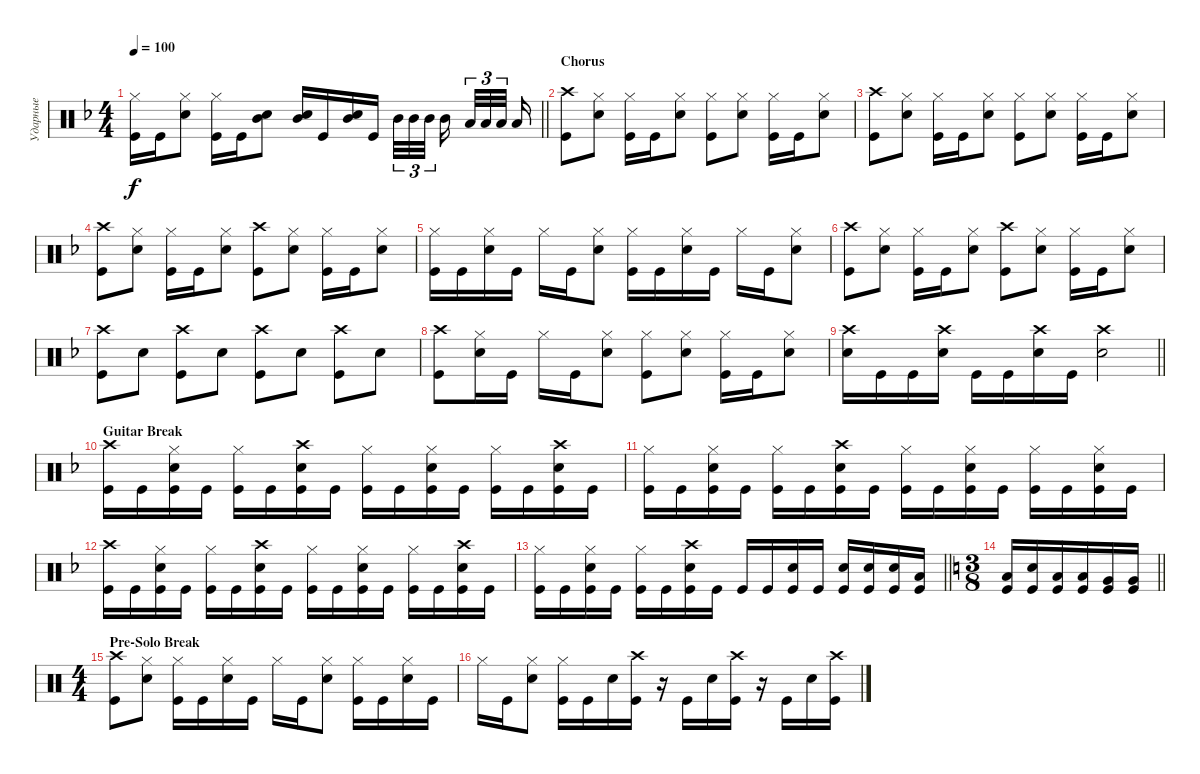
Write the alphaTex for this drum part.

\track ("Ударные" "Ударные") {instrument percussion}
\staff {score}
\articulation defaults
\ts (4 4)
\tempo 100
\clef neutral
\barLineRight lightlight
\ks dminor
("Kick (hit)" "Hi-Hat (closed)").16{dy f} "Kick (hit)".16 ("Snare (hit) 2" "Hi-Hat (closed)").8 ("Kick (hit)" "Hi-Hat (closed)").16 "Kick (hit)".16 ("Snare (hit) 2" "Mid Tom (hit)").8{bd 240} ("Snare (hit) 2" "Mid Tom (hit)").16{bd 240} "Kick (hit)".16 ("Snare (hit) 2" "Mid Tom (hit)").16{bd 240} "Kick (hit)".16 "Mid Tom (hit)".32{tu (3 2)} "Mid Tom (hit)".32{tu (3 2)} "Mid Tom (hit)".32{tu (3 2) beam splitsecondary} "Mid Tom (hit)".16{beam splitsecondary} "Low Tom (hit)".32{tu (3 2)} "Low Tom (hit)".32{tu (3 2)} "Low Tom (hit)".32{tu (3 2) beam splitsecondary} "Low Tom (hit)".16 |
\section ("" "Chorus")
("Kick (hit)" "Crash high (hit)").8 ("Snare (hit) 2" "Hi-Hat (closed)").8 ("Kick (hit)" "Hi-Hat (closed)").16 "Kick (hit)".16 ("Snare (hit) 2" "Hi-Hat (closed)").8 ("Kick (hit)" "Hi-Hat (closed)").8 ("Snare (hit) 2" "Hi-Hat (closed)").8 ("Kick (hit)" "Hi-Hat (closed)").16 "Kick (hit)".16 ("Snare (hit) 2" "Hi-Hat (closed)").8 |
("Kick (hit)" "Crash high (hit)").8 ("Snare (hit) 2" "Hi-Hat (closed)").8 ("Kick (hit)" "Hi-Hat (closed)").16 "Kick (hit)".16 ("Snare (hit) 2" "Hi-Hat (closed)").8 ("Kick (hit)" "Hi-Hat (closed)").8 ("Snare (hit) 2" "Hi-Hat (closed)").8 ("Kick (hit)" "Hi-Hat (closed)").16 "Kick (hit)".16 ("Snare (hit) 2" "Hi-Hat (closed)").8 |
("Kick (hit)" "Crash high (hit)").8 ("Snare (hit) 2" "Hi-Hat (closed)").8 ("Kick (hit)" "Hi-Hat (closed)").16 "Kick (hit)".16 ("Snare (hit) 2" "Hi-Hat (closed)").8 ("Kick (hit)" "Crash high (hit)").8 ("Snare (hit) 2" "Hi-Hat (closed)").8 ("Kick (hit)" "Hi-Hat (closed)").16 "Kick (hit)".16 ("Snare (hit) 2" "Hi-Hat (closed)").8 |
("Kick (hit)" "Hi-Hat (closed)").16 "Kick (hit)".16 ("Snare (hit) 2" "Hi-Hat (closed)").16 "Kick (hit)".16 "Hi-Hat (closed)".16 "Kick (hit)".16 ("Snare (hit) 2" "Hi-Hat (closed)").8 ("Kick (hit)" "Hi-Hat (closed)").16 "Kick (hit)".16 ("Snare (hit) 2" "Hi-Hat (closed)").16 "Kick (hit)".16 "Hi-Hat (closed)".16 "Kick (hit)".16 ("Snare (hit) 2" "Hi-Hat (closed)").8 |
("Kick (hit)" "Crash high (hit)").8 ("Snare (hit) 2" "Hi-Hat (closed)").8 ("Kick (hit)" "Hi-Hat (closed)").16 "Kick (hit)".16 ("Snare (hit) 2" "Hi-Hat (closed)").8 ("Kick (hit)" "Crash high (hit)").8 ("Snare (hit) 2" "Hi-Hat (closed)").8 ("Kick (hit)" "Hi-Hat (closed)").16 "Kick (hit)".16 ("Snare (hit) 2" "Hi-Hat (closed)").8 |
("Kick (hit)" "Crash high (hit)").8 "Snare (hit) 2".8 ("Kick (hit)" "Crash high (hit)").8 "Snare (hit) 2".8 ("Kick (hit)" "Crash high (hit)").8 "Snare (hit) 2".8 ("Kick (hit)" "Crash high (hit)").8 "Snare (hit) 2".8 |
("Kick (hit)" "Crash high (hit)").8 ("Snare (hit) 2" "Hi-Hat (closed)").16 "Kick (hit)".16 "Hi-Hat (closed)".16 "Kick (hit)".16 ("Snare (hit) 2" "Hi-Hat (closed)").8 ("Kick (hit)" "Hi-Hat (closed)").8 ("Snare (hit) 2" "Hi-Hat (closed)").8 ("Kick (hit)" "Hi-Hat (closed)").16 "Kick (hit)".16 ("Snare (hit) 2" "Hi-Hat (closed)").8 |
\barLineRight lightlight
("Snare (hit) 2" "Crash high (hit)").16 "Kick (hit)".16 "Kick (hit)".16 ("Snare (hit) 2" "Crash high (hit)").16 "Kick (hit)".16 "Kick (hit)".16 ("Snare (hit) 2" "Crash high (hit)").16 "Kick (hit)".16 ("Snare (hit) 2" "Crash high (hit)").2 |
\section ("" "Guitar Break")
("Kick (hit)" "Crash high (hit)").16 "Kick (hit)".16 ("Kick (hit)" "Snare (hit) 2" "Hi-Hat (closed)").16 "Kick (hit)".16 ("Kick (hit)" "Hi-Hat (closed)").16 "Kick (hit)".16 ("Kick (hit)" "Snare (hit) 2" "Crash high (hit)").16 "Kick (hit)".16 ("Kick (hit)" "Hi-Hat (closed)").16 "Kick (hit)".16 ("Kick (hit)" "Snare (hit) 2" "Hi-Hat (closed)").16 "Kick (hit)".16 ("Kick (hit)" "Hi-Hat (closed)").16 "Kick (hit)".16 ("Kick (hit)" "Snare (hit) 2" "Crash high (hit)").16 "Kick (hit)".16 |
("Kick (hit)" "Hi-Hat (closed)").16 "Kick (hit)".16 ("Kick (hit)" "Snare (hit) 2" "Hi-Hat (closed)").16 "Kick (hit)".16 ("Kick (hit)" "Hi-Hat (closed)").16 "Kick (hit)".16 ("Kick (hit)" "Snare (hit) 2" "Crash high (hit)").16 "Kick (hit)".16 ("Kick (hit)" "Hi-Hat (closed)").16 "Kick (hit)".16 ("Kick (hit)" "Snare (hit) 2" "Hi-Hat (closed)").16 "Kick (hit)".16 ("Kick (hit)" "Hi-Hat (closed)").16 "Kick (hit)".16 ("Kick (hit)" "Snare (hit) 2" "Hi-Hat (closed)").16 "Kick (hit)".16 |
("Kick (hit)" "Crash high (hit)").16 "Kick (hit)".16 ("Kick (hit)" "Snare (hit) 2" "Hi-Hat (closed)").16 "Kick (hit)".16 ("Kick (hit)" "Hi-Hat (closed)").16 "Kick (hit)".16 ("Kick (hit)" "Snare (hit) 2" "Crash high (hit)").16 "Kick (hit)".16 ("Kick (hit)" "Hi-Hat (closed)").16 "Kick (hit)".16 ("Kick (hit)" "Snare (hit) 2" "Hi-Hat (closed)").16 "Kick (hit)".16 ("Kick (hit)" "Hi-Hat (closed)").16 "Kick (hit)".16 ("Kick (hit)" "Snare (hit) 2" "Crash high (hit)").16 "Kick (hit)".16 |
\barLineRight lightlight
("Kick (hit)" "Hi-Hat (closed)").16 "Kick (hit)".16 ("Kick (hit)" "Snare (hit) 2" "Hi-Hat (closed)").16 "Kick (hit)".16 ("Kick (hit)" "Hi-Hat (closed)").16 "Kick (hit)".16 ("Kick (hit)" "Snare (hit) 2" "Crash high (hit)").16 "Kick (hit)".16 "Kick (hit)".16 "Kick (hit)".16 ("Kick (hit)" "Snare (hit) 2").16 "Kick (hit)".16 ("Kick (hit)" "Snare (hit) 2").16 ("Kick (hit)" "Snare (hit) 2").16 ("Kick (hit)" "Snare (hit) 2").16 ("Kick (hit)" "Low Tom (hit)").16 |
\ts (3 8)
\barLineRight lightlight
\ks aminor
("Kick (hit)" "Low Tom (hit)").16 ("Kick (hit)" "Snare (hit) 2").16 ("Kick (hit)" "Low Tom (hit)").16 ("Kick (hit)" "Low Tom (hit)").16 ("Kick (hit)" "Very Low Tom (hit)").16 ("Kick (hit)" "Very Low Tom (hit)").16 |
\ts (4 4)
\section ("" "Pre-Solo Break")
("Kick (hit)" "Crash high (hit)").8 ("Snare (hit) 2" "Hi-Hat (closed)").8 ("Kick (hit)" "Hi-Hat (closed)").16 "Kick (hit)".16 ("Snare (hit) 2" "Hi-Hat (closed)").16 "Kick (hit)".16 "Hi-Hat (closed)".16 "Kick (hit)".16 ("Snare (hit) 2" "Hi-Hat (closed)").8 ("Kick (hit)" "Hi-Hat (closed)").16 "Kick (hit)".16 ("Snare (hit) 2" "Hi-Hat (closed)").16 "Kick (hit)".16 |
"Hi-Hat (closed)".16 "Kick (hit)".16 ("Snare (hit) 2" "Hi-Hat (closed)").8 ("Kick (hit)" "Hi-Hat (closed)").16 "Kick (hit)".16 "Snare (hit) 2".16 ("Kick (hit)" "Crash high (hit)").16 r.16 "Kick (hit)".16 "Snare (hit) 2".16 ("Kick (hit)" "Crash high (hit)").16 r.16 "Kick (hit)".16 "Snare (hit) 2".16 ("Kick (hit)" "Crash high (hit)").16
